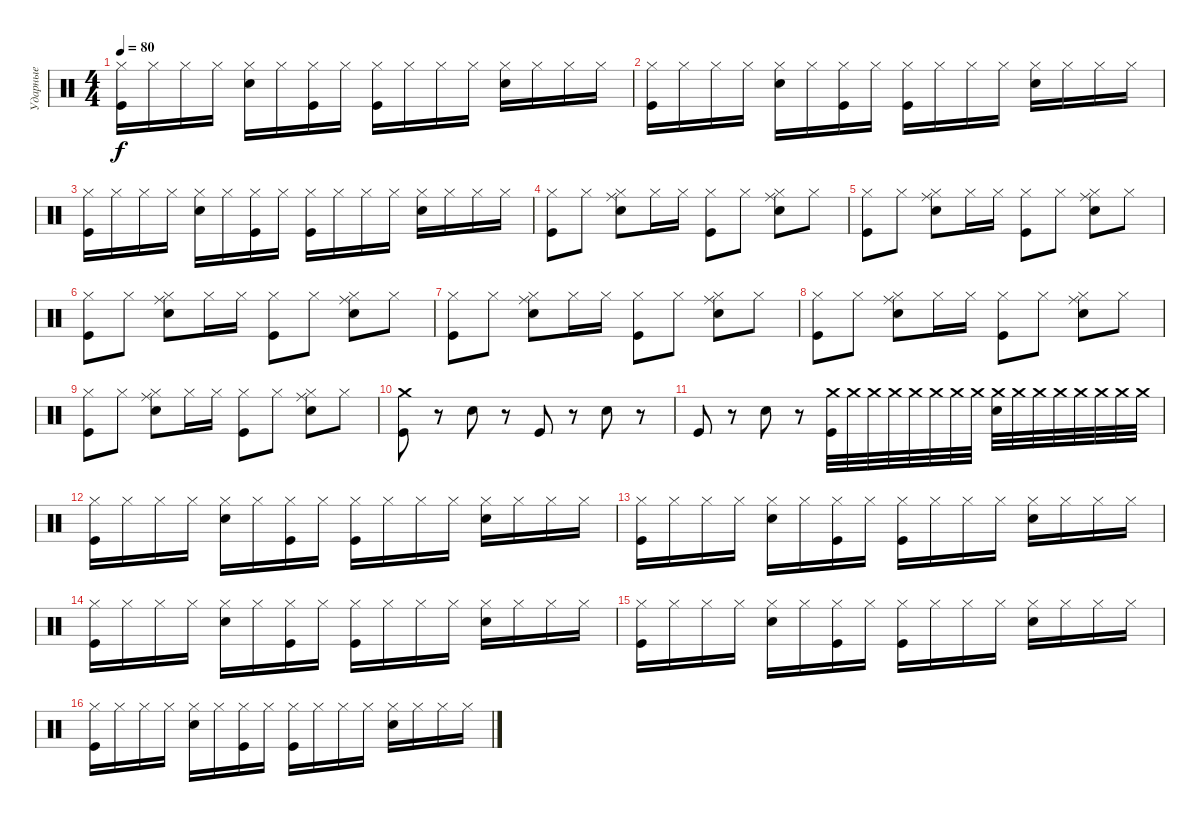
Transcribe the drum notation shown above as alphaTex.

\track ("Ударные" "Ударные") {instrument percussion}
\staff {score}
\articulation defaults
\ts (4 4)
\tempo 80
\clef neutral
\ks c
("Kick (hit)" "Hi-Hat (closed)").16{dy f} "Hi-Hat (closed)".16 "Hi-Hat (closed)".16 "Hi-Hat (closed)".16 ("Snare (hit) 2" "Hi-Hat (closed)").16 "Hi-Hat (closed)".16 ("Kick (hit)" "Hi-Hat (closed)").16 "Hi-Hat (closed)".16 ("Kick (hit)" "Hi-Hat (closed)").16 "Hi-Hat (closed)".16 "Hi-Hat (closed)".16 "Hi-Hat (closed)".16 ("Snare (hit) 2" "Hi-Hat (closed)").16 "Hi-Hat (closed)".16 "Hi-Hat (closed)".16 "Hi-Hat (closed)".16 |
("Kick (hit)" "Hi-Hat (closed)").16 "Hi-Hat (closed)".16 "Hi-Hat (closed)".16 "Hi-Hat (closed)".16 ("Snare (hit) 2" "Hi-Hat (closed)").16 "Hi-Hat (closed)".16 ("Kick (hit)" "Hi-Hat (closed)").16 "Hi-Hat (closed)".16 ("Kick (hit)" "Hi-Hat (closed)").16 "Hi-Hat (closed)".16 "Hi-Hat (closed)".16 "Hi-Hat (closed)".16 ("Snare (hit) 2" "Hi-Hat (closed)").16 "Hi-Hat (closed)".16 "Hi-Hat (closed)".16 "Hi-Hat (closed)".16 |
("Kick (hit)" "Hi-Hat (closed)").16 "Hi-Hat (closed)".16 "Hi-Hat (closed)".16 "Hi-Hat (closed)".16 ("Snare (hit) 2" "Hi-Hat (closed)").16 "Hi-Hat (closed)".16 ("Kick (hit)" "Hi-Hat (closed)").16 "Hi-Hat (closed)".16 ("Kick (hit)" "Hi-Hat (closed)").16 "Hi-Hat (closed)".16 "Hi-Hat (closed)".16 "Hi-Hat (closed)".16 ("Snare (hit) 2" "Hi-Hat (closed)").16 "Hi-Hat (closed)".16 "Hi-Hat (closed)".16 "Hi-Hat (closed)".16 |
("Kick (hit)" "Hi-Hat (closed)").8 "Hi-Hat (closed)".8 ("Snare (hit) 2" "Hi-Hat (closed)" "Ride (middle)").8 "Hi-Hat (closed)".16 "Hi-Hat (closed)".16 ("Kick (hit)" "Hi-Hat (closed)").8 "Hi-Hat (closed)".8 ("Snare (hit) 2" "Hi-Hat (closed)" "Ride (middle)").8 "Hi-Hat (closed)".8 |
("Kick (hit)" "Hi-Hat (closed)").8 "Hi-Hat (closed)".8 ("Snare (hit) 2" "Hi-Hat (closed)" "Ride (middle)").8 "Hi-Hat (closed)".16 "Hi-Hat (closed)".16 ("Kick (hit)" "Hi-Hat (closed)").8 "Hi-Hat (closed)".8 ("Snare (hit) 2" "Hi-Hat (closed)" "Ride (middle)").8 "Hi-Hat (closed)".8 |
("Kick (hit)" "Hi-Hat (closed)").8 "Hi-Hat (closed)".8 ("Snare (hit) 2" "Hi-Hat (closed)" "Ride (middle)").8 "Hi-Hat (closed)".16 "Hi-Hat (closed)".16 ("Kick (hit)" "Hi-Hat (closed)").8 "Hi-Hat (closed)".8 ("Snare (hit) 2" "Hi-Hat (closed)" "Ride (middle)").8 "Hi-Hat (closed)".8 |
("Kick (hit)" "Hi-Hat (closed)").8 "Hi-Hat (closed)".8 ("Snare (hit) 2" "Hi-Hat (closed)" "Ride (middle)").8 "Hi-Hat (closed)".16 "Hi-Hat (closed)".16 ("Kick (hit)" "Hi-Hat (closed)").8 "Hi-Hat (closed)".8 ("Snare (hit) 2" "Hi-Hat (closed)" "Ride (middle)").8 "Hi-Hat (closed)".8 |
("Kick (hit)" "Hi-Hat (closed)").8 "Hi-Hat (closed)".8 ("Snare (hit) 2" "Hi-Hat (closed)" "Ride (middle)").8 "Hi-Hat (closed)".16 "Hi-Hat (closed)".16 ("Kick (hit)" "Hi-Hat (closed)").8 "Hi-Hat (closed)".8 ("Snare (hit) 2" "Hi-Hat (closed)" "Ride (middle)").8 "Hi-Hat (closed)".8 |
("Kick (hit)" "Hi-Hat (closed)").8 "Hi-Hat (closed)".8 ("Snare (hit) 2" "Hi-Hat (closed)" "Ride (middle)").8 "Hi-Hat (closed)".16 "Hi-Hat (closed)".16 ("Kick (hit)" "Hi-Hat (closed)").8 "Hi-Hat (closed)".8 ("Snare (hit) 2" "Hi-Hat (closed)" "Ride (middle)").8 "Hi-Hat (closed)".8 |
("Kick (hit)" "Crash medium (hit)").8 r.8 "Snare (hit) 2".8{volume 5} r.8 "Kick (hit)".8 r.8 "Snare (hit) 2".8 r.8 |
"Kick (hit)".8 r.8 "Snare (hit) 2".8 r.8 ("Kick (hit)" "Crash medium (hit)").32{volume 13} "Crash medium (hit)".32 "Crash medium (hit)".32 "Crash medium (hit)".32 "Crash medium (hit)".32 "Crash medium (hit)".32 "Crash medium (hit)".32 "Crash medium (hit)".32 ("Snare (hit) 2" "Crash medium (hit)").32 "Crash medium (hit)".32 "Crash medium (hit)".32 "Crash medium (hit)".32 "Crash medium (hit)".32 "Crash medium (hit)".32 "Crash medium (hit)".32 "Crash medium (hit)".32 |
("Kick (hit)" "Hi-Hat (closed)").16 "Hi-Hat (closed)".16 "Hi-Hat (closed)".16 "Hi-Hat (closed)".16 ("Snare (hit) 2" "Hi-Hat (closed)").16 "Hi-Hat (closed)".16 ("Kick (hit)" "Hi-Hat (closed)").16 "Hi-Hat (closed)".16 ("Kick (hit)" "Hi-Hat (closed)").16 "Hi-Hat (closed)".16 "Hi-Hat (closed)".16 "Hi-Hat (closed)".16 ("Snare (hit) 2" "Hi-Hat (closed)").16 "Hi-Hat (closed)".16 "Hi-Hat (closed)".16 "Hi-Hat (closed)".16 |
("Kick (hit)" "Hi-Hat (closed)").16 "Hi-Hat (closed)".16 "Hi-Hat (closed)".16 "Hi-Hat (closed)".16 ("Snare (hit) 2" "Hi-Hat (closed)").16 "Hi-Hat (closed)".16 ("Kick (hit)" "Hi-Hat (closed)").16 "Hi-Hat (closed)".16 ("Kick (hit)" "Hi-Hat (closed)").16 "Hi-Hat (closed)".16 "Hi-Hat (closed)".16 "Hi-Hat (closed)".16 ("Snare (hit) 2" "Hi-Hat (closed)").16 "Hi-Hat (closed)".16 "Hi-Hat (closed)".16 "Hi-Hat (closed)".16 |
("Kick (hit)" "Hi-Hat (closed)").16 "Hi-Hat (closed)".16 "Hi-Hat (closed)".16 "Hi-Hat (closed)".16 ("Snare (hit) 2" "Hi-Hat (closed)").16 "Hi-Hat (closed)".16 ("Kick (hit)" "Hi-Hat (closed)").16 "Hi-Hat (closed)".16 ("Kick (hit)" "Hi-Hat (closed)").16 "Hi-Hat (closed)".16 "Hi-Hat (closed)".16 "Hi-Hat (closed)".16 ("Snare (hit) 2" "Hi-Hat (closed)").16 "Hi-Hat (closed)".16 "Hi-Hat (closed)".16 "Hi-Hat (closed)".16 |
("Kick (hit)" "Hi-Hat (closed)").16 "Hi-Hat (closed)".16 "Hi-Hat (closed)".16 "Hi-Hat (closed)".16 ("Snare (hit) 2" "Hi-Hat (closed)").16 "Hi-Hat (closed)".16 ("Kick (hit)" "Hi-Hat (closed)").16 "Hi-Hat (closed)".16 ("Kick (hit)" "Hi-Hat (closed)").16 "Hi-Hat (closed)".16 "Hi-Hat (closed)".16 "Hi-Hat (closed)".16 ("Snare (hit) 2" "Hi-Hat (closed)").16 "Hi-Hat (closed)".16 "Hi-Hat (closed)".16 "Hi-Hat (closed)".16 |
("Kick (hit)" "Hi-Hat (closed)").16 "Hi-Hat (closed)".16 "Hi-Hat (closed)".16 "Hi-Hat (closed)".16 ("Snare (hit) 2" "Hi-Hat (closed)").16 "Hi-Hat (closed)".16 ("Kick (hit)" "Hi-Hat (closed)").16 "Hi-Hat (closed)".16 ("Kick (hit)" "Hi-Hat (closed)").16 "Hi-Hat (closed)".16 "Hi-Hat (closed)".16 "Hi-Hat (closed)".16 ("Snare (hit) 2" "Hi-Hat (closed)").16 "Hi-Hat (closed)".16 "Hi-Hat (closed)".16 "Hi-Hat (closed)".16
